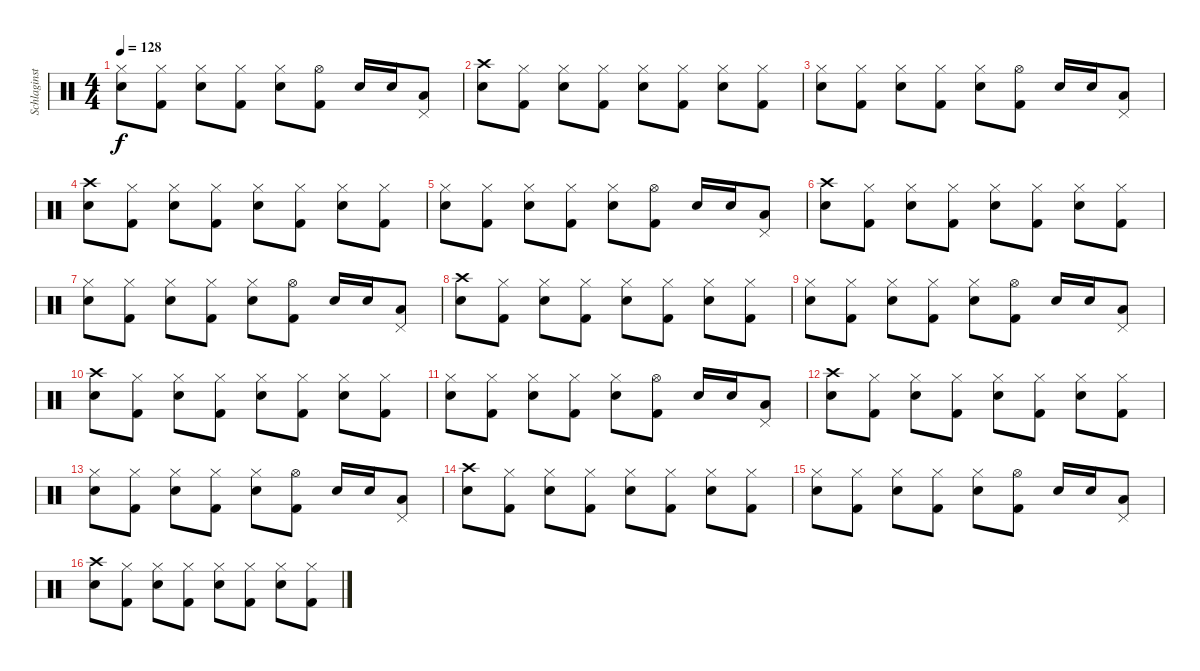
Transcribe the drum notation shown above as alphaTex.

\track ("Schlaginstrumente - Auswahl" "Schlaginst") {instrument percussion}
\staff {score}
\articulation defaults
\ts (4 4)
\tempo 128
\clef neutral
\ks c
("Hi-Hat (closed)" "Snare (hit) 2").8{dy f} ("Hi-Hat (closed)" "Kick (hit) 2").8 ("Hi-Hat (closed)" "Snare (hit) 2").8 ("Hi-Hat (closed)" "Kick (hit) 2").8 ("Hi-Hat (closed)" "Snare (hit) 2").8 ("Hi-Hat (open)" "Kick (hit) 2").8 "Snare (hit) 2".16 "Snare (hit) 2".16 ("Pedal Hi-Hat (hit)" "Low Tom (hit)").8 |
("Crash high (hit)" "Snare (hit) 2").8 ("Hi-Hat (closed)" "Kick (hit) 2").8 ("Hi-Hat (closed)" "Snare (hit) 2").8 ("Hi-Hat (closed)" "Kick (hit) 2").8 ("Hi-Hat (closed)" "Snare (hit) 2").8 ("Hi-Hat (closed)" "Kick (hit) 2").8 ("Hi-Hat (closed)" "Snare (hit) 2").8 ("Hi-Hat (closed)" "Kick (hit) 2").8 |
("Hi-Hat (closed)" "Snare (hit) 2").8 ("Hi-Hat (closed)" "Kick (hit) 2").8 ("Hi-Hat (closed)" "Snare (hit) 2").8 ("Hi-Hat (closed)" "Kick (hit) 2").8 ("Hi-Hat (closed)" "Snare (hit) 2").8 ("Hi-Hat (open)" "Kick (hit) 2").8 "Snare (hit) 2".16 "Snare (hit) 2".16 ("Pedal Hi-Hat (hit)" "Low Tom (hit)").8 |
("Crash high (hit)" "Snare (hit) 2").8 ("Hi-Hat (closed)" "Kick (hit) 2").8 ("Hi-Hat (closed)" "Snare (hit) 2").8 ("Hi-Hat (closed)" "Kick (hit) 2").8 ("Hi-Hat (closed)" "Snare (hit) 2").8 ("Hi-Hat (closed)" "Kick (hit) 2").8 ("Hi-Hat (closed)" "Snare (hit) 2").8 ("Hi-Hat (closed)" "Kick (hit) 2").8 |
("Hi-Hat (closed)" "Snare (hit) 2").8 ("Hi-Hat (closed)" "Kick (hit) 2").8 ("Hi-Hat (closed)" "Snare (hit) 2").8 ("Hi-Hat (closed)" "Kick (hit) 2").8 ("Hi-Hat (closed)" "Snare (hit) 2").8 ("Hi-Hat (open)" "Kick (hit) 2").8 "Snare (hit) 2".16 "Snare (hit) 2".16 ("Pedal Hi-Hat (hit)" "Low Tom (hit)").8 |
("Crash high (hit)" "Snare (hit) 2").8 ("Hi-Hat (closed)" "Kick (hit) 2").8 ("Hi-Hat (closed)" "Snare (hit) 2").8 ("Hi-Hat (closed)" "Kick (hit) 2").8 ("Hi-Hat (closed)" "Snare (hit) 2").8 ("Hi-Hat (closed)" "Kick (hit) 2").8 ("Hi-Hat (closed)" "Snare (hit) 2").8 ("Hi-Hat (closed)" "Kick (hit) 2").8 |
("Hi-Hat (closed)" "Snare (hit) 2").8 ("Hi-Hat (closed)" "Kick (hit) 2").8 ("Hi-Hat (closed)" "Snare (hit) 2").8 ("Hi-Hat (closed)" "Kick (hit) 2").8 ("Hi-Hat (closed)" "Snare (hit) 2").8 ("Hi-Hat (open)" "Kick (hit) 2").8 "Snare (hit) 2".16 "Snare (hit) 2".16 ("Pedal Hi-Hat (hit)" "Low Tom (hit)").8 |
("Crash high (hit)" "Snare (hit) 2").8 ("Hi-Hat (closed)" "Kick (hit) 2").8 ("Hi-Hat (closed)" "Snare (hit) 2").8 ("Hi-Hat (closed)" "Kick (hit) 2").8 ("Hi-Hat (closed)" "Snare (hit) 2").8 ("Hi-Hat (closed)" "Kick (hit) 2").8 ("Hi-Hat (closed)" "Snare (hit) 2").8 ("Hi-Hat (closed)" "Kick (hit) 2").8 |
("Hi-Hat (closed)" "Snare (hit) 2").8 ("Hi-Hat (closed)" "Kick (hit) 2").8 ("Hi-Hat (closed)" "Snare (hit) 2").8 ("Hi-Hat (closed)" "Kick (hit) 2").8 ("Hi-Hat (closed)" "Snare (hit) 2").8 ("Hi-Hat (open)" "Kick (hit) 2").8 "Snare (hit) 2".16 "Snare (hit) 2".16 ("Pedal Hi-Hat (hit)" "Low Tom (hit)").8 |
("Crash high (hit)" "Snare (hit) 2").8 ("Hi-Hat (closed)" "Kick (hit) 2").8 ("Hi-Hat (closed)" "Snare (hit) 2").8 ("Hi-Hat (closed)" "Kick (hit) 2").8 ("Hi-Hat (closed)" "Snare (hit) 2").8 ("Hi-Hat (closed)" "Kick (hit) 2").8 ("Hi-Hat (closed)" "Snare (hit) 2").8 ("Hi-Hat (closed)" "Kick (hit) 2").8 |
("Hi-Hat (closed)" "Snare (hit) 2").8 ("Hi-Hat (closed)" "Kick (hit) 2").8 ("Hi-Hat (closed)" "Snare (hit) 2").8 ("Hi-Hat (closed)" "Kick (hit) 2").8 ("Hi-Hat (closed)" "Snare (hit) 2").8 ("Hi-Hat (open)" "Kick (hit) 2").8 "Snare (hit) 2".16 "Snare (hit) 2".16 ("Pedal Hi-Hat (hit)" "Low Tom (hit)").8 |
("Crash high (hit)" "Snare (hit) 2").8 ("Hi-Hat (closed)" "Kick (hit) 2").8 ("Hi-Hat (closed)" "Snare (hit) 2").8 ("Hi-Hat (closed)" "Kick (hit) 2").8 ("Hi-Hat (closed)" "Snare (hit) 2").8 ("Hi-Hat (closed)" "Kick (hit) 2").8 ("Hi-Hat (closed)" "Snare (hit) 2").8 ("Hi-Hat (closed)" "Kick (hit) 2").8 |
("Hi-Hat (closed)" "Snare (hit) 2").8 ("Hi-Hat (closed)" "Kick (hit) 2").8 ("Hi-Hat (closed)" "Snare (hit) 2").8 ("Hi-Hat (closed)" "Kick (hit) 2").8 ("Hi-Hat (closed)" "Snare (hit) 2").8 ("Hi-Hat (open)" "Kick (hit) 2").8 "Snare (hit) 2".16 "Snare (hit) 2".16 ("Pedal Hi-Hat (hit)" "Low Tom (hit)").8 |
("Crash high (hit)" "Snare (hit) 2").8 ("Hi-Hat (closed)" "Kick (hit) 2").8 ("Hi-Hat (closed)" "Snare (hit) 2").8 ("Hi-Hat (closed)" "Kick (hit) 2").8 ("Hi-Hat (closed)" "Snare (hit) 2").8 ("Hi-Hat (closed)" "Kick (hit) 2").8 ("Hi-Hat (closed)" "Snare (hit) 2").8 ("Hi-Hat (closed)" "Kick (hit) 2").8 |
("Hi-Hat (closed)" "Snare (hit) 2").8 ("Hi-Hat (closed)" "Kick (hit) 2").8 ("Hi-Hat (closed)" "Snare (hit) 2").8 ("Hi-Hat (closed)" "Kick (hit) 2").8 ("Hi-Hat (closed)" "Snare (hit) 2").8 ("Hi-Hat (open)" "Kick (hit) 2").8 "Snare (hit) 2".16 "Snare (hit) 2".16 ("Pedal Hi-Hat (hit)" "Low Tom (hit)").8 |
("Crash high (hit)" "Snare (hit) 2").8 ("Hi-Hat (closed)" "Kick (hit) 2").8 ("Hi-Hat (closed)" "Snare (hit) 2").8 ("Hi-Hat (closed)" "Kick (hit) 2").8 ("Hi-Hat (closed)" "Snare (hit) 2").8 ("Hi-Hat (closed)" "Kick (hit) 2").8 ("Hi-Hat (closed)" "Snare (hit) 2").8 ("Hi-Hat (closed)" "Kick (hit) 2").8
